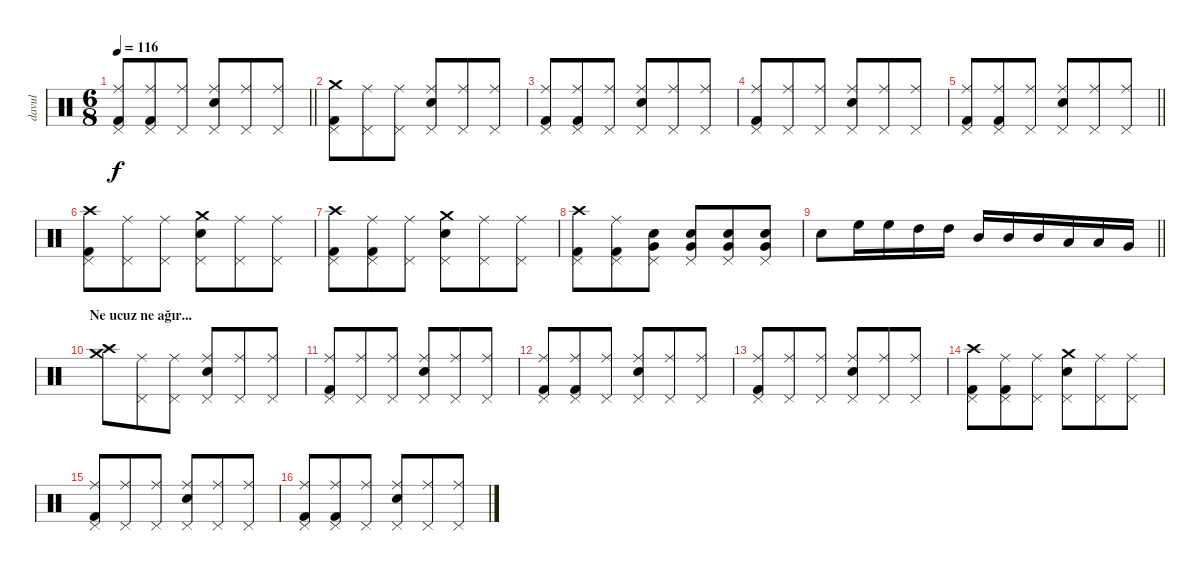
\track ("davul" "davul") {instrument percussion}
\staff {score}
\articulation defaults
\ts (6 8)
\tempo 116
\clef neutral
\barLineRight lightlight
\ks c
("Ride (middle)" "Kick (hit) 2" "Pedal Hi-Hat (hit)").8{dy f} ("Ride (middle)" "Kick (hit) 2" "Pedal Hi-Hat (hit)").8 ("Ride (middle)" "Pedal Hi-Hat (hit)").8 ("Ride (middle)" "Electric Snare (hit)" "Pedal Hi-Hat (hit)").8 ("Ride (middle)" "Pedal Hi-Hat (hit)").8 ("Ride (middle)" "Pedal Hi-Hat (hit)").8 |
("Crash medium (hit)" "Kick (hit) 2" "Pedal Hi-Hat (hit)").8 ("Ride (middle)" "Pedal Hi-Hat (hit)").8 ("Ride (middle)" "Pedal Hi-Hat (hit)").8 ("Ride (middle)" "Electric Snare (hit)" "Pedal Hi-Hat (hit)").8 ("Ride (middle)" "Pedal Hi-Hat (hit)").8 ("Ride (middle)" "Pedal Hi-Hat (hit)").8 |
("Ride (middle)" "Kick (hit) 2" "Pedal Hi-Hat (hit)").8 ("Ride (middle)" "Kick (hit) 2" "Pedal Hi-Hat (hit)").8 ("Ride (middle)" "Pedal Hi-Hat (hit)").8 ("Ride (middle)" "Electric Snare (hit)" "Pedal Hi-Hat (hit)").8 ("Ride (middle)" "Pedal Hi-Hat (hit)").8 ("Ride (middle)" "Pedal Hi-Hat (hit)").8 |
("Ride (middle)" "Kick (hit) 2" "Pedal Hi-Hat (hit)").8 ("Ride (middle)" "Pedal Hi-Hat (hit)").8 ("Ride (middle)" "Pedal Hi-Hat (hit)").8 ("Ride (middle)" "Electric Snare (hit)" "Pedal Hi-Hat (hit)").8 ("Ride (middle)" "Pedal Hi-Hat (hit)").8 ("Ride (middle)" "Pedal Hi-Hat (hit)").8 |
\barLineRight lightlight
("Ride (middle)" "Kick (hit) 2" "Pedal Hi-Hat (hit)").8 ("Ride (middle)" "Kick (hit) 2" "Pedal Hi-Hat (hit)").8 ("Ride (middle)" "Pedal Hi-Hat (hit)").8 ("Ride (middle)" "Electric Snare (hit)" "Pedal Hi-Hat (hit)").8 ("Ride (middle)" "Pedal Hi-Hat (hit)").8 ("Ride (middle)" "Pedal Hi-Hat (hit)").8 |
("Crash high (hit)" "Kick (hit) 2" "Pedal Hi-Hat (hit)").8 ("Ride (middle)" "Pedal Hi-Hat (hit)").8 ("Ride (middle)" "Pedal Hi-Hat (hit)").8 ("Crash medium (hit)" "Electric Snare (hit)" "Pedal Hi-Hat (hit)").8 ("Ride (middle)" "Pedal Hi-Hat (hit)").8 ("Ride (middle)" "Pedal Hi-Hat (hit)").8 |
("Crash high (hit)" "Kick (hit) 2" "Pedal Hi-Hat (hit)").8 ("Ride (middle)" "Kick (hit) 2" "Pedal Hi-Hat (hit)").8 ("Ride (middle)" "Pedal Hi-Hat (hit)").8 ("Crash medium (hit)" "Electric Snare (hit)" "Pedal Hi-Hat (hit)").8 ("Ride (middle)" "Pedal Hi-Hat (hit)").8 ("Ride (middle)" "Pedal Hi-Hat (hit)").8 |
("Crash high (hit)" "Kick (hit) 2" "Pedal Hi-Hat (hit)").8 ("Ride (middle)" "Kick (hit) 2" "Pedal Hi-Hat (hit)").8 ("Very Low Tom (hit)" "Electric Snare (hit)" "Pedal Hi-Hat (hit)").8 ("Very Low Tom (hit)" "Electric Snare (hit)" "Pedal Hi-Hat (hit)").8 ("Very Low Tom (hit)" "Electric Snare (hit)" "Pedal Hi-Hat (hit)").8 ("Very Low Tom (hit)" "Electric Snare (hit)" "Pedal Hi-Hat (hit)").8 |
\barLineRight lightlight "Snare (hit) 2".8 "High Floor Tom (hit)".16 "High Floor Tom (hit)".16 "High Tom (hit)".16 "High Tom (hit)".16 "Mid Tom (hit)".16 "Mid Tom (hit)".16 "Mid Tom (hit)".16 "Low Tom (hit)".16 "Low Tom (hit)".16 "Very Low Tom (hit)".16
|
\section ("" "Ne ucuz ne ağır...")
("Crash high (hit)" "Crash medium (hit)").8 ("Ride (middle)" "Pedal Hi-Hat (hit)").8 ("Ride (middle)" "Pedal Hi-Hat (hit)").8 ("Ride (middle)" "Electric Snare (hit)" "Pedal Hi-Hat (hit)").8 ("Ride (middle)" "Pedal Hi-Hat (hit)").8 ("Ride (middle)" "Pedal Hi-Hat (hit)").8 |
("Ride (middle)" "Kick (hit) 2" "Pedal Hi-Hat (hit)").8 ("Ride (middle)" "Pedal Hi-Hat (hit)").8 ("Ride (middle)" "Pedal Hi-Hat (hit)").8 ("Ride (middle)" "Electric Snare (hit)" "Pedal Hi-Hat (hit)").8 ("Ride (middle)" "Pedal Hi-Hat (hit)").8 ("Ride (middle)" "Pedal Hi-Hat (hit)").8 |
("Ride (middle)" "Kick (hit) 2" "Pedal Hi-Hat (hit)").8 ("Ride (middle)" "Kick (hit) 2" "Pedal Hi-Hat (hit)").8 ("Ride (middle)" "Pedal Hi-Hat (hit)").8 ("Ride (middle)" "Electric Snare (hit)" "Pedal Hi-Hat (hit)").8 ("Ride (middle)" "Pedal Hi-Hat (hit)").8 ("Ride (middle)" "Pedal Hi-Hat (hit)").8 |
("Ride (middle)" "Kick (hit) 2" "Pedal Hi-Hat (hit)").8 ("Ride (middle)" "Pedal Hi-Hat (hit)").8 ("Ride (middle)" "Pedal Hi-Hat (hit)").8 ("Ride (middle)" "Electric Snare (hit)" "Pedal Hi-Hat (hit)").8 ("Ride (middle)" "Pedal Hi-Hat (hit)").8 ("Ride (middle)" "Pedal Hi-Hat (hit)").8 |
("Crash high (hit)" "Kick (hit) 2" "Pedal Hi-Hat (hit)").8 ("Ride (middle)" "Kick (hit) 2" "Pedal Hi-Hat (hit)").8 ("Ride (middle)" "Pedal Hi-Hat (hit)").8 ("Crash medium (hit)" "Electric Snare (hit)" "Pedal Hi-Hat (hit)").8 ("Ride (middle)" "Pedal Hi-Hat (hit)").8 ("Ride (middle)" "Pedal Hi-Hat (hit)").8 |
("Ride (middle)" "Kick (hit) 2" "Pedal Hi-Hat (hit)").8 ("Ride (middle)" "Pedal Hi-Hat (hit)").8 ("Ride (middle)" "Pedal Hi-Hat (hit)").8 ("Ride (middle)" "Electric Snare (hit)" "Pedal Hi-Hat (hit)").8 ("Ride (middle)" "Pedal Hi-Hat (hit)").8 ("Ride (middle)" "Pedal Hi-Hat (hit)").8 |
("Ride (middle)" "Kick (hit) 2" "Pedal Hi-Hat (hit)").8 ("Ride (middle)" "Kick (hit) 2" "Pedal Hi-Hat (hit)").8 ("Ride (middle)" "Pedal Hi-Hat (hit)").8 ("Ride (middle)" "Electric Snare (hit)" "Pedal Hi-Hat (hit)").8 ("Ride (middle)" "Pedal Hi-Hat (hit)").8 ("Ride (middle)" "Pedal Hi-Hat (hit)").8
